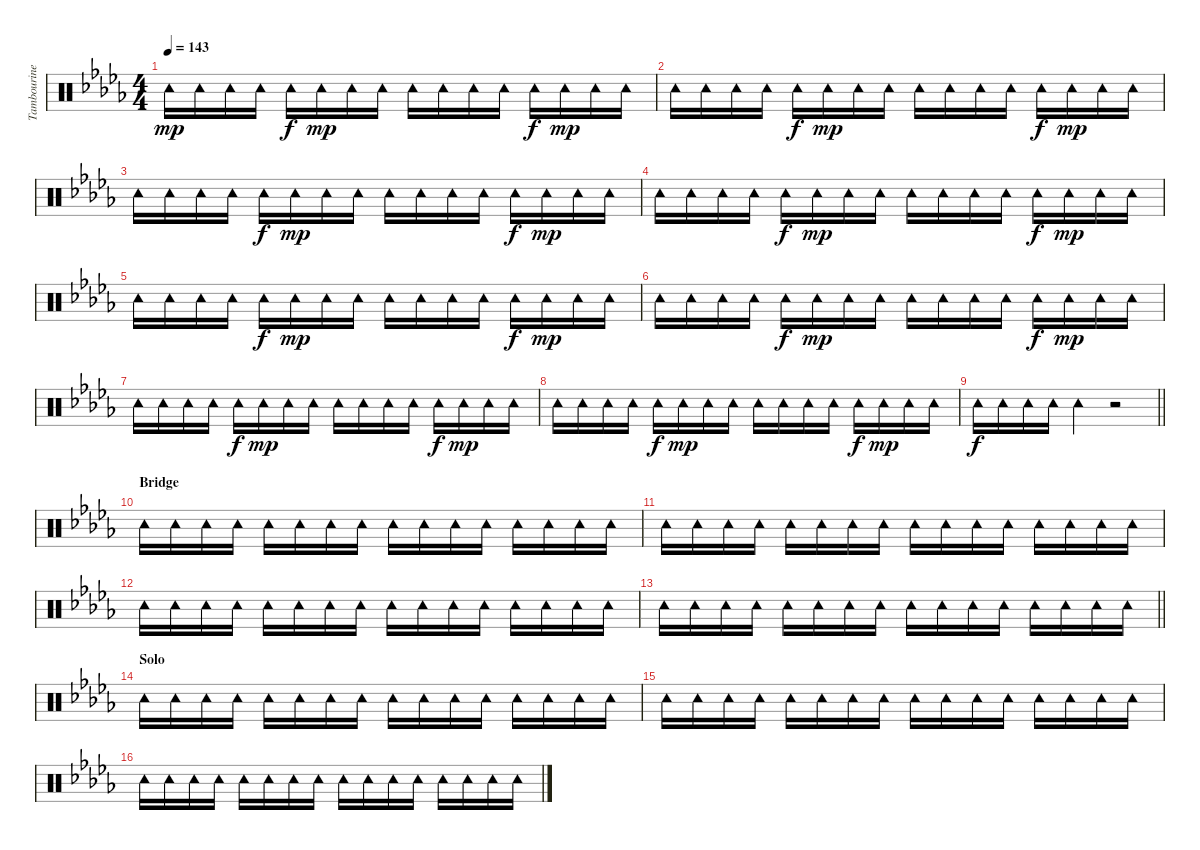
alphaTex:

\track ("Tambourine" "Tambourine") {instrument percussion}
\staff {score}
\articulation defaults
\ts (4 4)
\tempo 143
\clef neutral
\ks db "Tambourine (hit)".16{dy mp} "Tambourine (hit)".16 "Tambourine (hit)".16 "Tambourine (hit)".16 "Tambourine (hit)".16{dy f} "Tambourine (hit)".16{dy mp} "Tambourine (hit)".16 "Tambourine (hit)".16 "Tambourine (hit)".16 "Tambourine (hit)".16 "Tambourine (hit)".16 "Tambourine (hit)".16 "Tambourine (hit)".16{dy f} "Tambourine (hit)".16{dy mp} "Tambourine (hit)".16 "Tambourine (hit)".16
|
"Tambourine (hit)".16 "Tambourine (hit)".16 "Tambourine (hit)".16 "Tambourine (hit)".16 "Tambourine (hit)".16{dy f} "Tambourine (hit)".16{dy mp} "Tambourine (hit)".16 "Tambourine (hit)".16 "Tambourine (hit)".16 "Tambourine (hit)".16 "Tambourine (hit)".16 "Tambourine (hit)".16 "Tambourine (hit)".16{dy f} "Tambourine (hit)".16{dy mp} "Tambourine (hit)".16 "Tambourine (hit)".16 |
"Tambourine (hit)".16 "Tambourine (hit)".16 "Tambourine (hit)".16 "Tambourine (hit)".16 "Tambourine (hit)".16{dy f} "Tambourine (hit)".16{dy mp} "Tambourine (hit)".16 "Tambourine (hit)".16 "Tambourine (hit)".16 "Tambourine (hit)".16 "Tambourine (hit)".16 "Tambourine (hit)".16 "Tambourine (hit)".16{dy f} "Tambourine (hit)".16{dy mp} "Tambourine (hit)".16 "Tambourine (hit)".16 |
"Tambourine (hit)".16 "Tambourine (hit)".16 "Tambourine (hit)".16 "Tambourine (hit)".16 "Tambourine (hit)".16{dy f} "Tambourine (hit)".16{dy mp} "Tambourine (hit)".16 "Tambourine (hit)".16 "Tambourine (hit)".16 "Tambourine (hit)".16 "Tambourine (hit)".16 "Tambourine (hit)".16 "Tambourine (hit)".16{dy f} "Tambourine (hit)".16{dy mp} "Tambourine (hit)".16 "Tambourine (hit)".16 |
"Tambourine (hit)".16 "Tambourine (hit)".16 "Tambourine (hit)".16 "Tambourine (hit)".16 "Tambourine (hit)".16{dy f} "Tambourine (hit)".16{dy mp} "Tambourine (hit)".16 "Tambourine (hit)".16 "Tambourine (hit)".16 "Tambourine (hit)".16 "Tambourine (hit)".16 "Tambourine (hit)".16 "Tambourine (hit)".16{dy f} "Tambourine (hit)".16{dy mp} "Tambourine (hit)".16 "Tambourine (hit)".16 |
"Tambourine (hit)".16 "Tambourine (hit)".16 "Tambourine (hit)".16 "Tambourine (hit)".16 "Tambourine (hit)".16{dy f} "Tambourine (hit)".16{dy mp} "Tambourine (hit)".16 "Tambourine (hit)".16 "Tambourine (hit)".16 "Tambourine (hit)".16 "Tambourine (hit)".16 "Tambourine (hit)".16 "Tambourine (hit)".16{dy f} "Tambourine (hit)".16{dy mp} "Tambourine (hit)".16 "Tambourine (hit)".16 |
"Tambourine (hit)".16 "Tambourine (hit)".16 "Tambourine (hit)".16 "Tambourine (hit)".16 "Tambourine (hit)".16{dy f} "Tambourine (hit)".16{dy mp} "Tambourine (hit)".16 "Tambourine (hit)".16 "Tambourine (hit)".16 "Tambourine (hit)".16 "Tambourine (hit)".16 "Tambourine (hit)".16 "Tambourine (hit)".16{dy f} "Tambourine (hit)".16{dy mp} "Tambourine (hit)".16 "Tambourine (hit)".16 |
"Tambourine (hit)".16 "Tambourine (hit)".16 "Tambourine (hit)".16 "Tambourine (hit)".16 "Tambourine (hit)".16{dy f} "Tambourine (hit)".16{dy mp} "Tambourine (hit)".16 "Tambourine (hit)".16 "Tambourine (hit)".16 "Tambourine (hit)".16 "Tambourine (hit)".16 "Tambourine (hit)".16 "Tambourine (hit)".16{dy f} "Tambourine (hit)".16{dy mp} "Tambourine (hit)".16 "Tambourine (hit)".16 |
\barLineRight lightlight "Tambourine (hit)".16{dy f} "Tambourine (hit)".16 "Tambourine (hit)".16 "Tambourine (hit)".16 "Tambourine (hit)".4
r.2 |
\section ("" "Bridge")
"Tambourine (hit)".16 "Tambourine (hit)".16 "Tambourine (hit)".16 "Tambourine (hit)".16 "Tambourine (hit)".16 "Tambourine (hit)".16 "Tambourine (hit)".16 "Tambourine (hit)".16 "Tambourine (hit)".16 "Tambourine (hit)".16 "Tambourine (hit)".16 "Tambourine (hit)".16 "Tambourine (hit)".16 "Tambourine (hit)".16 "Tambourine (hit)".16 "Tambourine (hit)".16 |
"Tambourine (hit)".16 "Tambourine (hit)".16 "Tambourine (hit)".16 "Tambourine (hit)".16 "Tambourine (hit)".16 "Tambourine (hit)".16 "Tambourine (hit)".16 "Tambourine (hit)".16 "Tambourine (hit)".16 "Tambourine (hit)".16 "Tambourine (hit)".16 "Tambourine (hit)".16 "Tambourine (hit)".16 "Tambourine (hit)".16 "Tambourine (hit)".16 "Tambourine (hit)".16 |
"Tambourine (hit)".16 "Tambourine (hit)".16 "Tambourine (hit)".16 "Tambourine (hit)".16 "Tambourine (hit)".16 "Tambourine (hit)".16 "Tambourine (hit)".16 "Tambourine (hit)".16 "Tambourine (hit)".16 "Tambourine (hit)".16 "Tambourine (hit)".16 "Tambourine (hit)".16 "Tambourine (hit)".16 "Tambourine (hit)".16 "Tambourine (hit)".16 "Tambourine (hit)".16 |
\barLineRight lightlight "Tambourine (hit)".16 "Tambourine (hit)".16 "Tambourine (hit)".16 "Tambourine (hit)".16 "Tambourine (hit)".16 "Tambourine (hit)".16 "Tambourine (hit)".16 "Tambourine (hit)".16 "Tambourine (hit)".16 "Tambourine (hit)".16 "Tambourine (hit)".16 "Tambourine (hit)".16 "Tambourine (hit)".16 "Tambourine (hit)".16 "Tambourine (hit)".16 "Tambourine (hit)".16
|
\section ("" "Solo")
"Tambourine (hit)".16 "Tambourine (hit)".16 "Tambourine (hit)".16 "Tambourine (hit)".16 "Tambourine (hit)".16 "Tambourine (hit)".16 "Tambourine (hit)".16 "Tambourine (hit)".16 "Tambourine (hit)".16 "Tambourine (hit)".16 "Tambourine (hit)".16 "Tambourine (hit)".16 "Tambourine (hit)".16 "Tambourine (hit)".16 "Tambourine (hit)".16 "Tambourine (hit)".16 |
"Tambourine (hit)".16 "Tambourine (hit)".16 "Tambourine (hit)".16 "Tambourine (hit)".16 "Tambourine (hit)".16 "Tambourine (hit)".16 "Tambourine (hit)".16 "Tambourine (hit)".16 "Tambourine (hit)".16 "Tambourine (hit)".16 "Tambourine (hit)".16 "Tambourine (hit)".16 "Tambourine (hit)".16 "Tambourine (hit)".16 "Tambourine (hit)".16 "Tambourine (hit)".16 |
"Tambourine (hit)".16 "Tambourine (hit)".16 "Tambourine (hit)".16 "Tambourine (hit)".16 "Tambourine (hit)".16 "Tambourine (hit)".16 "Tambourine (hit)".16 "Tambourine (hit)".16 "Tambourine (hit)".16 "Tambourine (hit)".16 "Tambourine (hit)".16 "Tambourine (hit)".16 "Tambourine (hit)".16 "Tambourine (hit)".16 "Tambourine (hit)".16 "Tambourine (hit)".16
